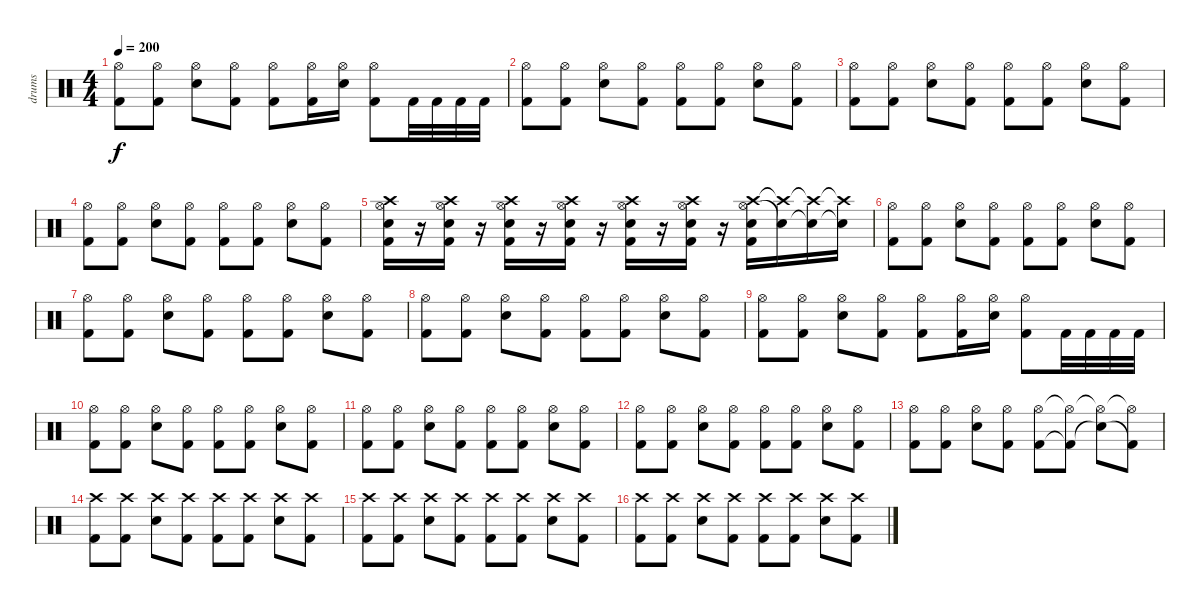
\track ("drums" "drums") {instrument percussion}
\staff {score}
\articulation defaults
\ts (4 4)
\tempo 200
\clef neutral
\ks c
("Hi-Hat (open)" "Kick (hit) 2").8{dy f} ("Hi-Hat (open)" "Kick (hit) 2").8 ("Hi-Hat (open)" "Electric Snare (hit)").8 ("Hi-Hat (open)" "Kick (hit) 2").8 ("Hi-Hat (open)" "Kick (hit) 2").8 ("Hi-Hat (open)" "Kick (hit) 2").16 ("Hi-Hat (open)" "Electric Snare (hit)").16 ("Hi-Hat (open)" "Kick (hit) 2").8 "Kick (hit) 2".32 "Kick (hit) 2".32 "Kick (hit) 2".32 "Kick (hit) 2".32 |
("Hi-Hat (open)" "Kick (hit) 2").8 ("Hi-Hat (open)" "Kick (hit) 2").8 ("Hi-Hat (open)" "Electric Snare (hit)").8 ("Hi-Hat (open)" "Kick (hit) 2").8 ("Hi-Hat (open)" "Kick (hit) 2").8 ("Hi-Hat (open)" "Kick (hit) 2").8 ("Hi-Hat (open)" "Electric Snare (hit)").8 ("Hi-Hat (open)" "Kick (hit) 2").8 |
("Hi-Hat (open)" "Kick (hit) 2").8 ("Hi-Hat (open)" "Kick (hit) 2").8 ("Hi-Hat (open)" "Electric Snare (hit)").8 ("Hi-Hat (open)" "Kick (hit) 2").8 ("Hi-Hat (open)" "Kick (hit) 2").8 ("Hi-Hat (open)" "Kick (hit) 2").8 ("Hi-Hat (open)" "Electric Snare (hit)").8 ("Hi-Hat (open)" "Kick (hit) 2").8 |
("Hi-Hat (open)" "Kick (hit) 2").8 ("Hi-Hat (open)" "Kick (hit) 2").8 ("Hi-Hat (open)" "Electric Snare (hit)").8 ("Hi-Hat (open)" "Kick (hit) 2").8 ("Hi-Hat (open)" "Kick (hit) 2").8 ("Hi-Hat (open)" "Kick (hit) 2").8 ("Hi-Hat (open)" "Electric Snare (hit)").8 ("Hi-Hat (open)" "Kick (hit) 2").8 |
("Crash high (hit)" "Hi-Hat (open)" "Kick (hit) 2" "Electric Snare (hit)").16 r.16 ("Crash high (hit)" "Hi-Hat (open)" "Kick (hit) 2" "Electric Snare (hit)").16 r.16 ("Crash high (hit)" "Hi-Hat (open)" "Kick (hit) 2" "Electric Snare (hit)").16 r.16 ("Crash high (hit)" "Hi-Hat (open)" "Kick (hit) 2" "Electric Snare (hit)").16 r.16 ("Crash high (hit)" "Hi-Hat (open)" "Kick (hit) 2" "Electric Snare (hit)").16 r.16 ("Crash high (hit)" "Hi-Hat (open)" "Kick (hit) 2" "Electric Snare (hit)").16 r.16 ("Crash high (hit)" "Hi-Hat (open)" "Kick (hit) 2" "Electric Snare (hit)").16 ("Crash high (hit)"{t} "Snare (hit)"{t}).16 ("Crash high (hit)"{t} "Snare (hit)"{t}).16 ("Crash high (hit)"{t} "Snare (hit)"{t}).16 |
("Hi-Hat (open)" "Kick (hit) 2").8 ("Hi-Hat (open)" "Kick (hit) 2").8 ("Hi-Hat (open)" "Electric Snare (hit)").8 ("Hi-Hat (open)" "Kick (hit) 2").8 ("Hi-Hat (open)" "Kick (hit) 2").8 ("Hi-Hat (open)" "Kick (hit) 2").8 ("Hi-Hat (open)" "Electric Snare (hit)").8 ("Hi-Hat (open)" "Kick (hit) 2").8 |
("Hi-Hat (open)" "Kick (hit) 2").8 ("Hi-Hat (open)" "Kick (hit) 2").8 ("Hi-Hat (open)" "Electric Snare (hit)").8 ("Hi-Hat (open)" "Kick (hit) 2").8 ("Hi-Hat (open)" "Kick (hit) 2").8 ("Hi-Hat (open)" "Kick (hit) 2").8 ("Hi-Hat (open)" "Electric Snare (hit)").8 ("Hi-Hat (open)" "Kick (hit) 2").8 |
("Hi-Hat (open)" "Kick (hit) 2").8 ("Hi-Hat (open)" "Kick (hit) 2").8 ("Hi-Hat (open)" "Electric Snare (hit)").8 ("Hi-Hat (open)" "Kick (hit) 2").8 ("Hi-Hat (open)" "Kick (hit) 2").8 ("Hi-Hat (open)" "Kick (hit) 2").8 ("Hi-Hat (open)" "Electric Snare (hit)").8 ("Hi-Hat (open)" "Kick (hit) 2").8 |
("Hi-Hat (open)" "Kick (hit) 2").8 ("Hi-Hat (open)" "Kick (hit) 2").8 ("Hi-Hat (open)" "Electric Snare (hit)").8 ("Hi-Hat (open)" "Kick (hit) 2").8 ("Hi-Hat (open)" "Kick (hit) 2").8 ("Hi-Hat (open)" "Kick (hit) 2").16 ("Hi-Hat (open)" "Electric Snare (hit)").16 ("Hi-Hat (open)" "Kick (hit) 2").8 "Kick (hit) 2".32 "Kick (hit) 2".32 "Kick (hit) 2".32 "Kick (hit) 2".32 |
("Hi-Hat (open)" "Kick (hit) 2").8 ("Hi-Hat (open)" "Kick (hit) 2").8 ("Hi-Hat (open)" "Electric Snare (hit)").8 ("Hi-Hat (open)" "Kick (hit) 2").8 ("Hi-Hat (open)" "Kick (hit) 2").8 ("Hi-Hat (open)" "Kick (hit) 2").8 ("Hi-Hat (open)" "Electric Snare (hit)").8 ("Hi-Hat (open)" "Kick (hit) 2").8 |
("Hi-Hat (open)" "Kick (hit) 2").8 ("Hi-Hat (open)" "Kick (hit) 2").8 ("Hi-Hat (open)" "Electric Snare (hit)").8 ("Hi-Hat (open)" "Kick (hit) 2").8 ("Hi-Hat (open)" "Kick (hit) 2").8 ("Hi-Hat (open)" "Kick (hit) 2").8 ("Hi-Hat (open)" "Electric Snare (hit)").8 ("Hi-Hat (open)" "Kick (hit) 2").8 |
("Hi-Hat (open)" "Kick (hit) 2").8 ("Hi-Hat (open)" "Kick (hit) 2").8 ("Hi-Hat (open)" "Electric Snare (hit)").8 ("Hi-Hat (open)" "Kick (hit) 2").8 ("Hi-Hat (open)" "Kick (hit) 2").8 ("Hi-Hat (open)" "Kick (hit) 2").8 ("Hi-Hat (open)" "Electric Snare (hit)").8 ("Hi-Hat (open)" "Kick (hit) 2").8 |
("Hi-Hat (open)" "Kick (hit) 2").8 ("Hi-Hat (open)" "Kick (hit) 2").8 ("Hi-Hat (open)" "Electric Snare (hit)").8 ("Hi-Hat (open)" "Kick (hit) 2").8 ("Hi-Hat (open)" "Kick (hit) 2").8 ("Hi-Hat (open)"{t} "Kick (hit) 2"{t}).8 ("Hi-Hat (open)"{t} "Electric Snare (hit)"{t}).8 ("Hi-Hat (open)"{t} "Kick (hit) 2"{t}).8 |
("Crash high (hit)" "Kick (hit) 2").8 ("Crash high (hit)" "Kick (hit) 2").8 ("Crash high (hit)" "Electric Snare (hit)").8 ("Crash high (hit)" "Kick (hit) 2").8 ("Crash high (hit)" "Kick (hit) 2").8 ("Crash high (hit)" "Kick (hit) 2").8 ("Crash high (hit)" "Electric Snare (hit)").8 ("Crash high (hit)" "Kick (hit) 2").8 |
("Crash high (hit)" "Kick (hit) 2").8 ("Crash high (hit)" "Kick (hit) 2").8 ("Crash high (hit)" "Electric Snare (hit)").8 ("Crash high (hit)" "Kick (hit) 2").8 ("Crash high (hit)" "Kick (hit) 2").8 ("Crash high (hit)" "Kick (hit) 2").8 ("Crash high (hit)" "Electric Snare (hit)").8 ("Crash high (hit)" "Kick (hit) 2").8 |
("Crash high (hit)" "Kick (hit) 2").8 ("Crash high (hit)" "Kick (hit) 2").8 ("Crash high (hit)" "Electric Snare (hit)").8 ("Crash high (hit)" "Kick (hit) 2").8 ("Crash high (hit)" "Kick (hit) 2").8 ("Crash high (hit)" "Kick (hit) 2").8 ("Crash high (hit)" "Electric Snare (hit)").8 ("Crash high (hit)" "Kick (hit) 2").8
